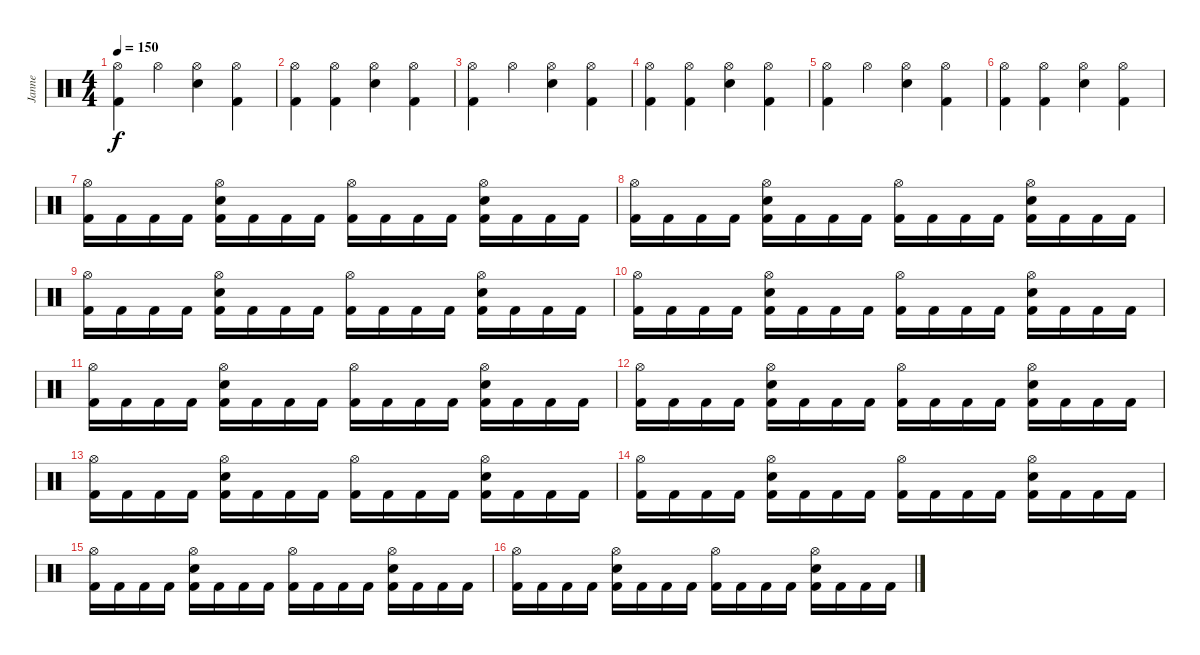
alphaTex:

\track ("Janne" "Janne") {instrument percussion}
\staff {score}
\articulation defaults
\ts (4 4)
\tempo 150
\clef neutral
\ks c
("Hi-Hat (open)" "Kick (hit) 2").4{dy f} "Hi-Hat (open)".4 ("Hi-Hat (open)" "Electric Snare (hit)").4 ("Hi-Hat (open)" "Kick (hit) 2").4 |
("Hi-Hat (open)" "Kick (hit) 2").4 ("Hi-Hat (open)" "Kick (hit) 2").4 ("Hi-Hat (open)" "Electric Snare (hit)").4 ("Hi-Hat (open)" "Kick (hit) 2").4 |
("Hi-Hat (open)" "Kick (hit) 2").4 "Hi-Hat (open)".4 ("Hi-Hat (open)" "Electric Snare (hit)").4 ("Hi-Hat (open)" "Kick (hit) 2").4 |
("Hi-Hat (open)" "Kick (hit) 2").4 ("Hi-Hat (open)" "Kick (hit) 2").4 ("Hi-Hat (open)" "Electric Snare (hit)").4 ("Hi-Hat (open)" "Kick (hit) 2").4 |
("Hi-Hat (open)" "Kick (hit) 2").4 "Hi-Hat (open)".4 ("Hi-Hat (open)" "Electric Snare (hit)").4 ("Hi-Hat (open)" "Kick (hit) 2").4 |
("Hi-Hat (open)" "Kick (hit) 2").4 ("Hi-Hat (open)" "Kick (hit) 2").4 ("Hi-Hat (open)" "Electric Snare (hit)").4 ("Hi-Hat (open)" "Kick (hit) 2").4 |
("Hi-Hat (open)" "Kick (hit) 2").16 "Kick (hit) 2".16 "Kick (hit) 2".16 "Kick (hit) 2".16 ("Hi-Hat (open)" "Electric Snare (hit)" "Kick (hit) 2").16 "Kick (hit) 2".16 "Kick (hit) 2".16 "Kick (hit) 2".16 ("Hi-Hat (open)" "Kick (hit) 2").16 "Kick (hit) 2".16 "Kick (hit) 2".16 "Kick (hit) 2".16 ("Hi-Hat (open)" "Electric Snare (hit)" "Kick (hit) 2").16 "Kick (hit) 2".16 "Kick (hit) 2".16 "Kick (hit) 2".16 |
("Hi-Hat (open)" "Kick (hit) 2").16 "Kick (hit) 2".16 "Kick (hit) 2".16 "Kick (hit) 2".16 ("Hi-Hat (open)" "Electric Snare (hit)" "Kick (hit) 2").16 "Kick (hit) 2".16 "Kick (hit) 2".16 "Kick (hit) 2".16 ("Hi-Hat (open)" "Kick (hit) 2").16 "Kick (hit) 2".16 "Kick (hit) 2".16 "Kick (hit) 2".16 ("Hi-Hat (open)" "Electric Snare (hit)" "Kick (hit) 2").16 "Kick (hit) 2".16 "Kick (hit) 2".16 "Kick (hit) 2".16 |
("Hi-Hat (open)" "Kick (hit) 2").16 "Kick (hit) 2".16 "Kick (hit) 2".16 "Kick (hit) 2".16 ("Hi-Hat (open)" "Electric Snare (hit)" "Kick (hit) 2").16 "Kick (hit) 2".16 "Kick (hit) 2".16 "Kick (hit) 2".16 ("Hi-Hat (open)" "Kick (hit) 2").16 "Kick (hit) 2".16 "Kick (hit) 2".16 "Kick (hit) 2".16 ("Hi-Hat (open)" "Electric Snare (hit)" "Kick (hit) 2").16 "Kick (hit) 2".16 "Kick (hit) 2".16 "Kick (hit) 2".16 |
("Hi-Hat (open)" "Kick (hit) 2").16 "Kick (hit) 2".16 "Kick (hit) 2".16 "Kick (hit) 2".16 ("Hi-Hat (open)" "Electric Snare (hit)" "Kick (hit) 2").16 "Kick (hit) 2".16 "Kick (hit) 2".16 "Kick (hit) 2".16 ("Hi-Hat (open)" "Kick (hit) 2").16 "Kick (hit) 2".16 "Kick (hit) 2".16 "Kick (hit) 2".16 ("Hi-Hat (open)" "Electric Snare (hit)" "Kick (hit) 2").16 "Kick (hit) 2".16 "Kick (hit) 2".16 "Kick (hit) 2".16 |
("Hi-Hat (open)" "Kick (hit) 2").16 "Kick (hit) 2".16 "Kick (hit) 2".16 "Kick (hit) 2".16 ("Hi-Hat (open)" "Electric Snare (hit)" "Kick (hit) 2").16 "Kick (hit) 2".16 "Kick (hit) 2".16 "Kick (hit) 2".16 ("Hi-Hat (open)" "Kick (hit) 2").16 "Kick (hit) 2".16 "Kick (hit) 2".16 "Kick (hit) 2".16 ("Hi-Hat (open)" "Electric Snare (hit)" "Kick (hit) 2").16 "Kick (hit) 2".16 "Kick (hit) 2".16 "Kick (hit) 2".16 |
("Hi-Hat (open)" "Kick (hit) 2").16 "Kick (hit) 2".16 "Kick (hit) 2".16 "Kick (hit) 2".16 ("Hi-Hat (open)" "Electric Snare (hit)" "Kick (hit) 2").16 "Kick (hit) 2".16 "Kick (hit) 2".16 "Kick (hit) 2".16 ("Hi-Hat (open)" "Kick (hit) 2").16 "Kick (hit) 2".16 "Kick (hit) 2".16 "Kick (hit) 2".16 ("Hi-Hat (open)" "Electric Snare (hit)" "Kick (hit) 2").16 "Kick (hit) 2".16 "Kick (hit) 2".16 "Kick (hit) 2".16 |
("Hi-Hat (open)" "Kick (hit) 2").16 "Kick (hit) 2".16 "Kick (hit) 2".16 "Kick (hit) 2".16 ("Hi-Hat (open)" "Electric Snare (hit)" "Kick (hit) 2").16 "Kick (hit) 2".16 "Kick (hit) 2".16 "Kick (hit) 2".16 ("Hi-Hat (open)" "Kick (hit) 2").16 "Kick (hit) 2".16 "Kick (hit) 2".16 "Kick (hit) 2".16 ("Hi-Hat (open)" "Electric Snare (hit)" "Kick (hit) 2").16 "Kick (hit) 2".16 "Kick (hit) 2".16 "Kick (hit) 2".16 |
("Hi-Hat (open)" "Kick (hit) 2").16 "Kick (hit) 2".16 "Kick (hit) 2".16 "Kick (hit) 2".16 ("Hi-Hat (open)" "Electric Snare (hit)" "Kick (hit) 2").16 "Kick (hit) 2".16 "Kick (hit) 2".16 "Kick (hit) 2".16 ("Hi-Hat (open)" "Kick (hit) 2").16 "Kick (hit) 2".16 "Kick (hit) 2".16 "Kick (hit) 2".16 ("Hi-Hat (open)" "Electric Snare (hit)" "Kick (hit) 2").16 "Kick (hit) 2".16 "Kick (hit) 2".16 "Kick (hit) 2".16 |
("Hi-Hat (open)" "Kick (hit) 2").16 "Kick (hit) 2".16 "Kick (hit) 2".16 "Kick (hit) 2".16 ("Hi-Hat (open)" "Electric Snare (hit)" "Kick (hit) 2").16 "Kick (hit) 2".16 "Kick (hit) 2".16 "Kick (hit) 2".16 ("Hi-Hat (open)" "Kick (hit) 2").16 "Kick (hit) 2".16 "Kick (hit) 2".16 "Kick (hit) 2".16 ("Hi-Hat (open)" "Electric Snare (hit)" "Kick (hit) 2").16 "Kick (hit) 2".16 "Kick (hit) 2".16 "Kick (hit) 2".16 |
("Hi-Hat (open)" "Kick (hit) 2").16 "Kick (hit) 2".16 "Kick (hit) 2".16 "Kick (hit) 2".16 ("Hi-Hat (open)" "Electric Snare (hit)" "Kick (hit) 2").16 "Kick (hit) 2".16 "Kick (hit) 2".16 "Kick (hit) 2".16 ("Hi-Hat (open)" "Kick (hit) 2").16 "Kick (hit) 2".16 "Kick (hit) 2".16 "Kick (hit) 2".16 ("Hi-Hat (open)" "Electric Snare (hit)" "Kick (hit) 2").16 "Kick (hit) 2".16 "Kick (hit) 2".16 "Kick (hit) 2".16
